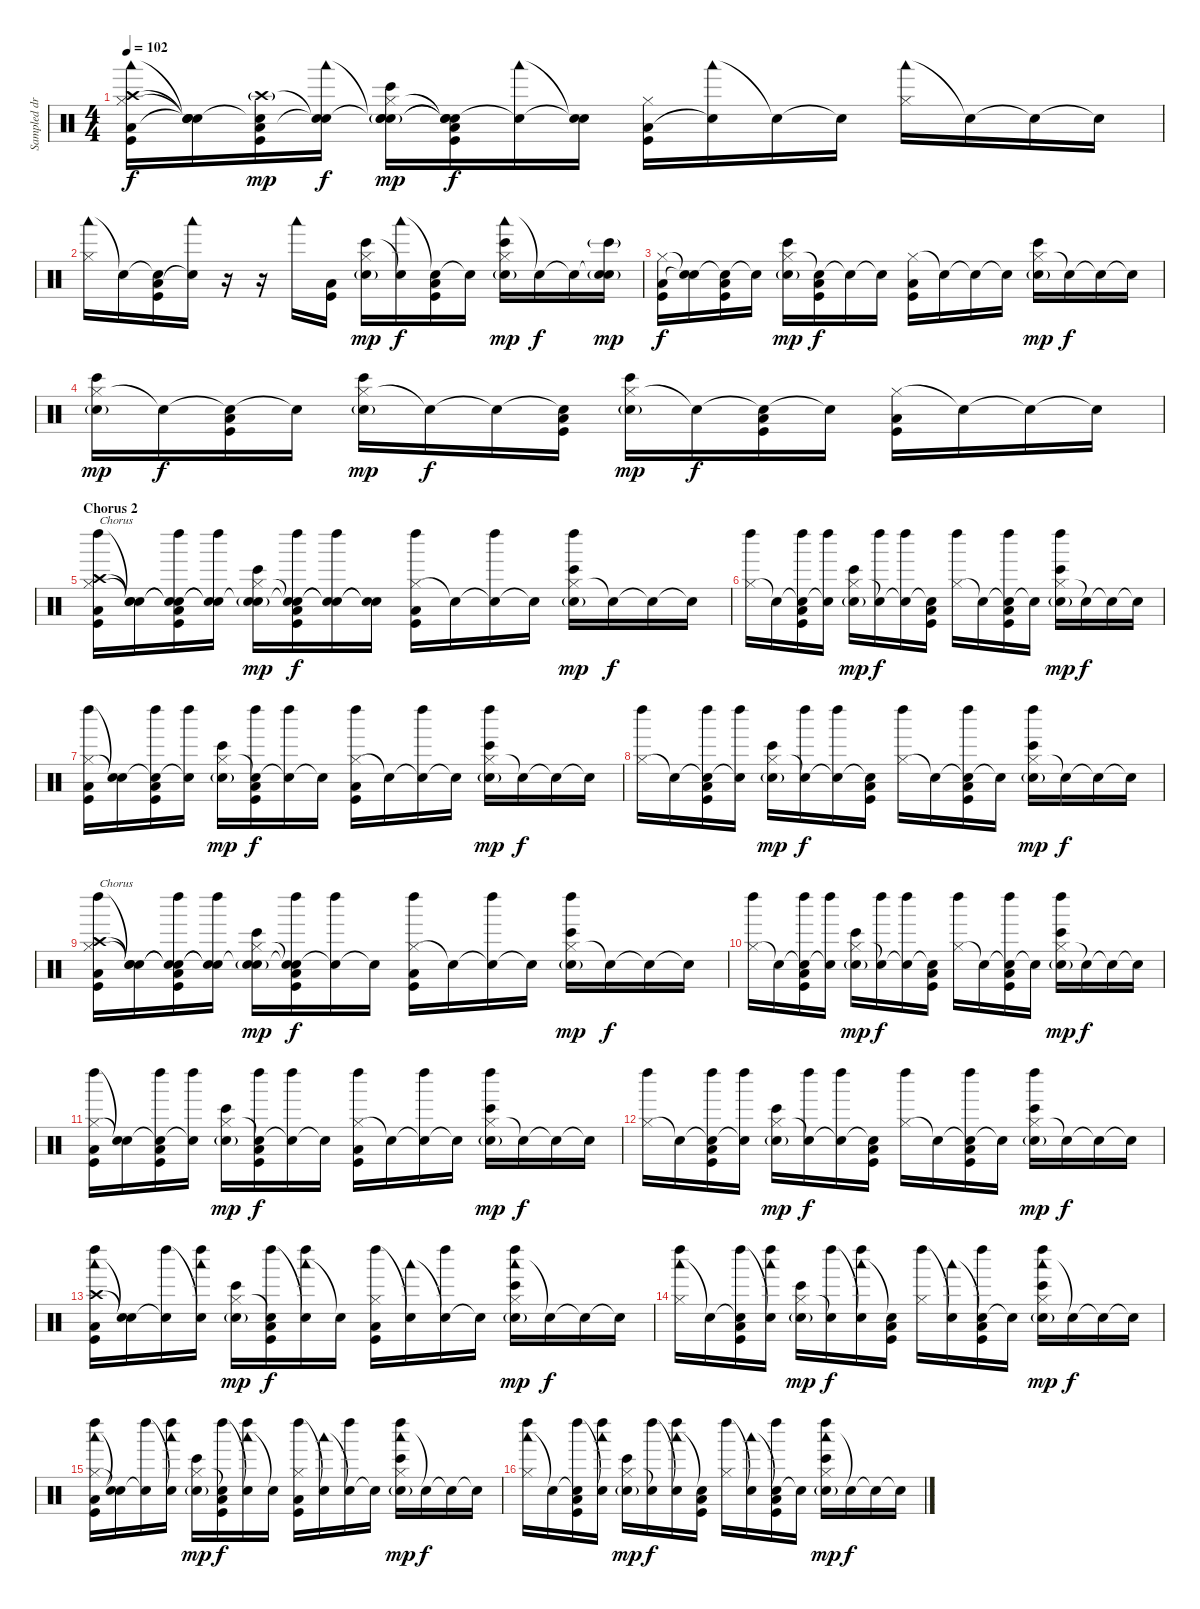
\track ("Sampled drums (Rob and Joe)" "Sampled dr") {instrument percussion}
\staff {score}
\articulation defaults
\ts (4 4)
\tempo 102
\clef neutral
\ks c
("Woodblock low (hit)" "Hi-Hat (closed)" "Crash high (hit)" "Low Floor Tom (hit)" "Kick (hit)").16{dy f} ("Snare (hit)"{t} "Snare (hit)"{t} "Snare (hit)"{t} "Snare (hit)"{t}).16 ("Snare (hit)"{t} "Crash high (hit)"{g} "Low Floor Tom (hit)" "Kick (hit)").16{dy mp} ("Woodblock low (hit)" "Snare (hit)"{t} "Snare (hit)"{t}).16{dy f} ("Snare (hit)"{t} "Hi-Hat (closed)" "Snare (hit)"{t} "Bongo High (hit)" "Electric Snare (hit)"{g}).16{dy mp} ("Snare (hit)"{t} "Snare (hit)"{t} "Snare (hit)"{t} "Low Floor Tom (hit)" "Kick (hit)").16{dy f} ("Woodblock low (hit)" "Snare (hit)"{t}).16 ("Snare (hit)"{t} "Snare (hit)"{t}).16 ("Hi-Hat (closed)" "Low Floor Tom (hit)" "Kick (hit)").16 ("Woodblock low (hit)" "Snare (hit)"{t}).16 "Snare (hit)"{t}.16 "Snare (hit)"{t}.16 ("Woodblock low (hit)" "Hi-Hat (closed)").16 "Snare (hit)"{t}.16 "Snare (hit)"{t}.16 "Snare (hit)"{t}.16 |
("Woodblock low (hit)" "Hi-Hat (closed)").16 "Snare (hit)"{t}.16 ("Snare (hit)"{t} "Low Floor Tom (hit)" "Kick (hit)").16 ("Woodblock low (hit)" "Snare (hit)"{t}).16 r.16 r.16 "Woodblock low (hit)".16 ("Low Floor Tom (hit)" "Kick (hit)").16 ("Hi-Hat (closed)" "Bongo High (hit)" "Electric Snare (hit)"{g}).16{dy mp} ("Woodblock low (hit)" "Snare (hit)"{t}).16{dy f} ("Snare (hit)"{t} "Low Floor Tom (hit)" "Kick (hit)").16 "Snare (hit)"{t}.16 ("Woodblock low (hit)" "Hi-Hat (closed)" "Bongo High (hit)" "Electric Snare (hit)"{g}).16{dy mp} "Snare (hit)"{t}.16{dy f} "Snare (hit)"{t}.16 ("Snare (hit)"{t} "Bongo High (hit)"{g} "Electric Snare (hit)"{g}).16{dy mp} |
("Hi-Hat (closed)" "Low Floor Tom (hit)" "Kick (hit)").16{dy f} ("Snare (hit)"{t} "Snare (hit)"{t}).16 ("Snare (hit)"{t} "Low Floor Tom (hit)" "Kick (hit)").16 "Snare (hit)"{t}.16 ("Hi-Hat (closed)" "Bongo High (hit)" "Electric Snare (hit)"{g}).16{dy mp} ("Snare (hit)"{t} "Low Floor Tom (hit)" "Kick (hit)").16{dy f} "Snare (hit)"{t}.16 "Snare (hit)"{t}.16 ("Hi-Hat (closed)" "Low Floor Tom (hit)" "Kick (hit)").16 "Snare (hit)"{t}.16 "Snare (hit)"{t}.16 "Snare (hit)"{t}.16 ("Hi-Hat (closed)" "Bongo High (hit)" "Electric Snare (hit)"{g}).16{dy mp} "Snare (hit)"{t}.16{dy f} "Snare (hit)"{t}.16 "Snare (hit)"{t}.16 |
("Hi-Hat (closed)" "Bongo High (hit)" "Electric Snare (hit)"{g}).16{dy mp} "Snare (hit)"{t}.16{dy f} ("Snare (hit)"{t} "Low Floor Tom (hit)" "Kick (hit)").16 "Snare (hit)"{t}.16 ("Hi-Hat (closed)" "Bongo High (hit)" "Electric Snare (hit)"{g}).16{dy mp} "Snare (hit)"{t}.16{dy f} "Snare (hit)"{t}.16 ("Snare (hit)"{t} "Low Floor Tom (hit)" "Kick (hit)").16 ("Hi-Hat (closed)" "Bongo High (hit)" "Electric Snare (hit)"{g}).16{dy mp} "Snare (hit)"{t}.16{dy f} ("Snare (hit)"{t} "Low Floor Tom (hit)" "Kick (hit)").16 "Snare (hit)"{t}.16 ("Hi-Hat (closed)" "Low Floor Tom (hit)" "Kick (hit)").16 "Snare (hit)"{t}.16 "Snare (hit)"{t}.16 "Snare (hit)"{t}.16 |
\section ("" "Chorus 2")
("Crash high (hit)" "Hi-Hat (closed)" "Left Maraca (hit)" "Low Floor Tom (hit)" "Kick (hit)").16{txt "Chorus"} ("Snare (hit)"{t} "Snare (hit)"{t} "Snare (hit)"{t}).16 ("Snare (hit)"{t} "Snare (hit)"{t} "Left Maraca (hit)" "Low Floor Tom (hit)" "Kick (hit)").16 ("Snare (hit)"{t} "Snare (hit)"{t} "Left Maraca (hit)").16 ("Snare (hit)"{t} "Hi-Hat (closed)" "Bongo High (hit)" "Electric Snare (hit)"{g}).16{dy mp} ("Snare (hit)"{t} "Snare (hit)"{t} "Left Maraca (hit)" "Low Floor Tom (hit)" "Kick (hit)").16{dy f} ("Snare (hit)"{t} "Snare (hit)"{t} "Left Maraca (hit)").16 ("Snare (hit)"{t} "Snare (hit)"{t}).16 ("Hi-Hat (closed)" "Left Maraca (hit)" "Low Floor Tom (hit)" "Kick (hit)").16 "Snare (hit)"{t}.16 ("Snare (hit)"{t} "Left Maraca (hit)").16 "Snare (hit)"{t}.16 ("Hi-Hat (closed)" "Left Maraca (hit)" "Bongo High (hit)" "Electric Snare (hit)"{g}).16{dy mp} "Snare (hit)"{t}.16{dy f} "Snare (hit)"{t}.16 "Snare (hit)"{t}.16 |
("Hi-Hat (closed)" "Left Maraca (hit)").16 "Snare (hit)"{t}.16 ("Snare (hit)"{t} "Left Maraca (hit)" "Low Floor Tom (hit)" "Kick (hit)").16 ("Snare (hit)"{t} "Left Maraca (hit)").16 ("Hi-Hat (closed)" "Bongo High (hit)" "Electric Snare (hit)"{g}).16{dy mp} ("Snare (hit)"{t} "Left Maraca (hit)").16{dy f} ("Snare (hit)"{t} "Left Maraca (hit)").16 ("Snare (hit)"{t} "Low Floor Tom (hit)" "Kick (hit)").16 ("Hi-Hat (closed)" "Left Maraca (hit)").16 "Snare (hit)"{t}.16 ("Snare (hit)"{t} "Left Maraca (hit)" "Low Floor Tom (hit)" "Kick (hit)").16 "Snare (hit)"{t}.16 ("Hi-Hat (closed)" "Left Maraca (hit)" "Bongo High (hit)" "Electric Snare (hit)"{g}).16{dy mp} "Snare (hit)"{t}.16{dy f} "Snare (hit)"{t}.16 "Snare (hit)"{t}.16 |
("Hi-Hat (closed)" "Left Maraca (hit)" "Low Floor Tom (hit)" "Kick (hit)").16 ("Snare (hit)"{t} "Snare (hit)"{t}).16 ("Snare (hit)"{t} "Left Maraca (hit)" "Low Floor Tom (hit)" "Kick (hit)").16 ("Snare (hit)"{t} "Left Maraca (hit)").16 ("Hi-Hat (closed)" "Bongo High (hit)" "Electric Snare (hit)"{g}).16{dy mp} ("Snare (hit)"{t} "Left Maraca (hit)" "Low Floor Tom (hit)" "Kick (hit)").16{dy f} ("Snare (hit)"{t} "Left Maraca (hit)").16 "Snare (hit)"{t}.16 ("Hi-Hat (closed)" "Left Maraca (hit)" "Low Floor Tom (hit)" "Kick (hit)").16 "Snare (hit)"{t}.16 ("Snare (hit)"{t} "Left Maraca (hit)").16 "Snare (hit)"{t}.16 ("Hi-Hat (closed)" "Left Maraca (hit)" "Bongo High (hit)" "Electric Snare (hit)"{g}).16{dy mp} "Snare (hit)"{t}.16{dy f} "Snare (hit)"{t}.16 "Snare (hit)"{t}.16 |
("Hi-Hat (closed)" "Left Maraca (hit)").16 "Snare (hit)"{t}.16 ("Snare (hit)"{t} "Left Maraca (hit)" "Low Floor Tom (hit)" "Kick (hit)").16 ("Snare (hit)"{t} "Left Maraca (hit)").16 ("Hi-Hat (closed)" "Bongo High (hit)" "Electric Snare (hit)"{g}).16{dy mp} ("Snare (hit)"{t} "Left Maraca (hit)").16{dy f} ("Snare (hit)"{t} "Left Maraca (hit)").16 ("Snare (hit)"{t} "Low Floor Tom (hit)" "Kick (hit)").16 ("Hi-Hat (closed)" "Left Maraca (hit)").16 "Snare (hit)"{t}.16 ("Snare (hit)"{t} "Left Maraca (hit)" "Low Floor Tom (hit)" "Kick (hit)").16 "Snare (hit)"{t}.16 ("Hi-Hat (closed)" "Left Maraca (hit)" "Bongo High (hit)" "Electric Snare (hit)"{g}).16{dy mp} "Snare (hit)"{t}.16{dy f} "Snare (hit)"{t}.16 "Snare (hit)"{t}.16 |
("Crash high (hit)" "Hi-Hat (closed)" "Left Maraca (hit)" "Low Floor Tom (hit)" "Kick (hit)").16{txt "Chorus"} ("Snare (hit)"{t} "Snare (hit)"{t} "Snare (hit)"{t}).16 ("Snare (hit)"{t} "Snare (hit)"{t} "Left Maraca (hit)" "Low Floor Tom (hit)" "Kick (hit)").16 ("Snare (hit)"{t} "Snare (hit)"{t} "Left Maraca (hit)").16 ("Snare (hit)"{t} "Hi-Hat (closed)" "Bongo High (hit)" "Electric Snare (hit)"{g}).16{dy mp} ("Snare (hit)"{t} "Snare (hit)"{t} "Left Maraca (hit)" "Low Floor Tom (hit)" "Kick (hit)").16{dy f} ("Snare (hit)"{t} "Left Maraca (hit)").16 "Snare (hit)"{t}.16 ("Hi-Hat (closed)" "Left Maraca (hit)" "Low Floor Tom (hit)" "Kick (hit)").16 "Snare (hit)"{t}.16 ("Snare (hit)"{t} "Left Maraca (hit)").16 "Snare (hit)"{t}.16 ("Hi-Hat (closed)" "Left Maraca (hit)" "Bongo High (hit)" "Electric Snare (hit)"{g}).16{dy mp} "Snare (hit)"{t}.16{dy f} "Snare (hit)"{t}.16 "Snare (hit)"{t}.16 |
("Hi-Hat (closed)" "Left Maraca (hit)").16 "Snare (hit)"{t}.16 ("Snare (hit)"{t} "Left Maraca (hit)" "Low Floor Tom (hit)" "Kick (hit)").16 ("Snare (hit)"{t} "Left Maraca (hit)").16 ("Hi-Hat (closed)" "Bongo High (hit)" "Electric Snare (hit)"{g}).16{dy mp} ("Snare (hit)"{t} "Left Maraca (hit)").16{dy f} ("Snare (hit)"{t} "Left Maraca (hit)").16 ("Snare (hit)"{t} "Low Floor Tom (hit)" "Kick (hit)").16 ("Hi-Hat (closed)" "Left Maraca (hit)").16 "Snare (hit)"{t}.16 ("Snare (hit)"{t} "Left Maraca (hit)" "Low Floor Tom (hit)" "Kick (hit)").16 "Snare (hit)"{t}.16 ("Hi-Hat (closed)" "Left Maraca (hit)" "Bongo High (hit)" "Electric Snare (hit)"{g}).16{dy mp} "Snare (hit)"{t}.16{dy f} "Snare (hit)"{t}.16 "Snare (hit)"{t}.16 |
("Hi-Hat (closed)" "Left Maraca (hit)" "Low Floor Tom (hit)" "Kick (hit)").16 ("Snare (hit)"{t} "Snare (hit)"{t}).16 ("Snare (hit)"{t} "Left Maraca (hit)" "Low Floor Tom (hit)" "Kick (hit)").16 ("Snare (hit)"{t} "Left Maraca (hit)").16 ("Hi-Hat (closed)" "Bongo High (hit)" "Electric Snare (hit)"{g}).16{dy mp} ("Snare (hit)"{t} "Left Maraca (hit)" "Low Floor Tom (hit)" "Kick (hit)").16{dy f} ("Snare (hit)"{t} "Left Maraca (hit)").16 "Snare (hit)"{t}.16 ("Hi-Hat (closed)" "Left Maraca (hit)" "Low Floor Tom (hit)" "Kick (hit)").16 "Snare (hit)"{t}.16 ("Snare (hit)"{t} "Left Maraca (hit)").16 "Snare (hit)"{t}.16 ("Hi-Hat (closed)" "Left Maraca (hit)" "Bongo High (hit)" "Electric Snare (hit)"{g}).16{dy mp} "Snare (hit)"{t}.16{dy f} "Snare (hit)"{t}.16 "Snare (hit)"{t}.16 |
("Hi-Hat (closed)" "Left Maraca (hit)").16 "Snare (hit)"{t}.16 ("Snare (hit)"{t} "Left Maraca (hit)" "Low Floor Tom (hit)" "Kick (hit)").16 ("Snare (hit)"{t} "Left Maraca (hit)").16 ("Hi-Hat (closed)" "Bongo High (hit)" "Electric Snare (hit)"{g}).16{dy mp} ("Snare (hit)"{t} "Left Maraca (hit)").16{dy f} ("Snare (hit)"{t} "Left Maraca (hit)").16 ("Snare (hit)"{t} "Low Floor Tom (hit)" "Kick (hit)").16 ("Hi-Hat (closed)" "Left Maraca (hit)").16 "Snare (hit)"{t}.16 ("Snare (hit)"{t} "Left Maraca (hit)" "Low Floor Tom (hit)" "Kick (hit)").16 "Snare (hit)"{t}.16 ("Hi-Hat (closed)" "Left Maraca (hit)" "Bongo High (hit)" "Electric Snare (hit)"{g}).16{dy mp} "Snare (hit)"{t}.16{dy f} "Snare (hit)"{t}.16 "Snare (hit)"{t}.16 |
("Woodblock low (hit)" "Crash high (hit)" "Left Maraca (hit)" "Low Floor Tom (hit)" "Kick (hit)").16 ("Snare (hit)"{t} "Snare (hit)"{t}).16 ("Snare (hit)"{t} "Left Maraca (hit)").16 ("Woodblock low (hit)" "Snare (hit)"{t} "Left Maraca (hit)").16 ("Hi-Hat (closed)" "Bongo High (hit)" "Electric Snare (hit)"{g}).16{dy mp} ("Snare (hit)"{t} "Left Maraca (hit)" "Low Floor Tom (hit)" "Kick (hit)").16{dy f} ("Woodblock low (hit)" "Snare (hit)"{t} "Left Maraca (hit)").16 "Snare (hit)"{t}.16 ("Hi-Hat (closed)" "Left Maraca (hit)" "Low Floor Tom (hit)" "Kick (hit)").16 ("Woodblock low (hit)" "Snare (hit)"{t}).16 ("Snare (hit)"{t} "Left Maraca (hit)").16 "Snare (hit)"{t}.16 ("Woodblock low (hit)" "Hi-Hat (closed)" "Left Maraca (hit)" "Bongo High (hit)" "Electric Snare (hit)"{g}).16{dy mp} "Snare (hit)"{t}.16{dy f} "Snare (hit)"{t}.16 "Snare (hit)"{t}.16 |
("Woodblock low (hit)" "Hi-Hat (closed)" "Left Maraca (hit)").16 "Snare (hit)"{t}.16 ("Snare (hit)"{t} "Left Maraca (hit)" "Low Floor Tom (hit)" "Kick (hit)").16 ("Woodblock low (hit)" "Snare (hit)"{t} "Left Maraca (hit)").16 ("Hi-Hat (closed)" "Bongo High (hit)" "Electric Snare (hit)"{g}).16{dy mp} ("Snare (hit)"{t} "Left Maraca (hit)").16{dy f} ("Woodblock low (hit)" "Snare (hit)"{t} "Left Maraca (hit)").16 ("Snare (hit)"{t} "Low Floor Tom (hit)" "Kick (hit)").16 ("Hi-Hat (closed)" "Left Maraca (hit)").16 ("Woodblock low (hit)" "Snare (hit)"{t}).16 ("Snare (hit)"{t} "Left Maraca (hit)" "Low Floor Tom (hit)" "Kick (hit)").16 "Snare (hit)"{t}.16 ("Woodblock low (hit)" "Hi-Hat (closed)" "Left Maraca (hit)" "Bongo High (hit)" "Electric Snare (hit)"{g}).16{dy mp} "Snare (hit)"{t}.16{dy f} "Snare (hit)"{t}.16 "Snare (hit)"{t}.16 |
("Woodblock low (hit)" "Hi-Hat (closed)" "Left Maraca (hit)" "Low Floor Tom (hit)" "Kick (hit)").16 ("Snare (hit)"{t} "Snare (hit)"{t}).16 ("Snare (hit)"{t} "Left Maraca (hit)").16 ("Woodblock low (hit)" "Snare (hit)"{t} "Left Maraca (hit)").16 ("Hi-Hat (closed)" "Bongo High (hit)" "Electric Snare (hit)"{g}).16{dy mp} ("Snare (hit)"{t} "Left Maraca (hit)" "Low Floor Tom (hit)" "Kick (hit)").16{dy f} ("Woodblock low (hit)" "Snare (hit)"{t} "Left Maraca (hit)").16 "Snare (hit)"{t}.16 ("Hi-Hat (closed)" "Left Maraca (hit)" "Low Floor Tom (hit)" "Kick (hit)").16 ("Woodblock low (hit)" "Snare (hit)"{t}).16 ("Snare (hit)"{t} "Left Maraca (hit)").16 "Snare (hit)"{t}.16 ("Woodblock low (hit)" "Hi-Hat (closed)" "Left Maraca (hit)" "Bongo High (hit)" "Electric Snare (hit)"{g}).16{dy mp} "Snare (hit)"{t}.16{dy f} "Snare (hit)"{t}.16 "Snare (hit)"{t}.16 |
("Woodblock low (hit)" "Hi-Hat (closed)" "Left Maraca (hit)").16 "Snare (hit)"{t}.16 ("Snare (hit)"{t} "Left Maraca (hit)" "Low Floor Tom (hit)" "Kick (hit)").16 ("Woodblock low (hit)" "Snare (hit)"{t} "Left Maraca (hit)").16 ("Hi-Hat (closed)" "Bongo High (hit)" "Electric Snare (hit)"{g}).16{dy mp} ("Snare (hit)"{t} "Left Maraca (hit)").16{dy f} ("Woodblock low (hit)" "Snare (hit)"{t} "Left Maraca (hit)").16 ("Snare (hit)"{t} "Low Floor Tom (hit)" "Kick (hit)").16 ("Hi-Hat (closed)" "Left Maraca (hit)").16 ("Woodblock low (hit)" "Snare (hit)"{t}).16 ("Snare (hit)"{t} "Left Maraca (hit)" "Low Floor Tom (hit)" "Kick (hit)").16 "Snare (hit)"{t}.16 ("Woodblock low (hit)" "Hi-Hat (closed)" "Left Maraca (hit)" "Bongo High (hit)" "Electric Snare (hit)"{g}).16{dy mp} "Snare (hit)"{t}.16{dy f} "Snare (hit)"{t}.16 "Snare (hit)"{t}.16
